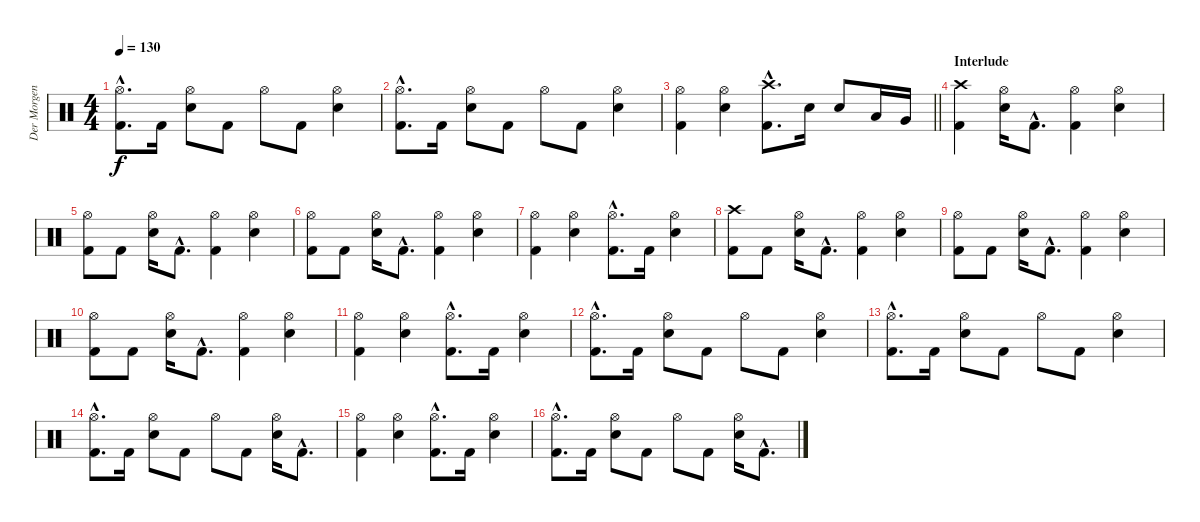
\track ("Der Morgenstern" "Der Morgen") {instrument percussion}
\staff {score}
\articulation defaults
\ts (4 4)
\tempo 130
\clef neutral
\ks c
("Hi-Hat (open)"{hac} "Kick (hit) 2"{hac}).8{d dy f} "Kick (hit) 2".16 ("Hi-Hat (open)" "Electric Snare (hit)").8 "Kick (hit) 2".8 "Hi-Hat (open)".8 "Kick (hit) 2".8 ("Hi-Hat (open)" "Electric Snare (hit)").4 |
("Hi-Hat (open)"{hac} "Kick (hit) 2"{hac}).8{d} "Kick (hit) 2".16 ("Hi-Hat (open)" "Electric Snare (hit)").8 "Kick (hit) 2".8 "Hi-Hat (open)".8 "Kick (hit) 2".8 ("Hi-Hat (open)" "Electric Snare (hit)").4 |
\barLineRight lightlight
("Hi-Hat (open)" "Kick (hit) 2").4 ("Hi-Hat (open)" "Electric Snare (hit)").4 ("Crash high (hit)"{hac} "Kick (hit) 2"{hac}).8{d} "Electric Snare (hit)".16 "Electric Snare (hit)".8 "Low Tom (hit)".16 "Very Low Tom (hit)".16 |
\section ("" "Interlude")
("Crash high (hit)" "Kick (hit) 2").4 ("Hi-Hat (open)" "Electric Snare (hit)").16 "Kick (hit) 2"{hac}.8{d} ("Hi-Hat (open)" "Kick (hit) 2").4 ("Hi-Hat (open)" "Electric Snare (hit)").4 |
("Hi-Hat (open)" "Kick (hit) 2").8 "Kick (hit) 2".8 ("Hi-Hat (open)" "Electric Snare (hit)").16 "Kick (hit) 2"{hac}.8{d} ("Hi-Hat (open)" "Kick (hit) 2").4 ("Hi-Hat (open)" "Electric Snare (hit)").4 |
("Hi-Hat (open)" "Kick (hit) 2").8 "Kick (hit) 2".8 ("Hi-Hat (open)" "Electric Snare (hit)").16 "Kick (hit) 2"{hac}.8{d} ("Hi-Hat (open)" "Kick (hit) 2").4 ("Hi-Hat (open)" "Electric Snare (hit)").4 |
("Hi-Hat (open)" "Kick (hit) 2").4 ("Hi-Hat (open)" "Electric Snare (hit)").4 ("Hi-Hat (open)"{hac} "Kick (hit) 2"{hac}).8{d} "Kick (hit) 2".16 ("Hi-Hat (open)" "Electric Snare (hit)").4 |
("Crash high (hit)" "Kick (hit) 2").8 "Kick (hit) 2".8 ("Hi-Hat (open)" "Electric Snare (hit)").16 "Kick (hit) 2"{hac}.8{d} ("Hi-Hat (open)" "Kick (hit) 2").4 ("Hi-Hat (open)" "Electric Snare (hit)").4 |
("Hi-Hat (open)" "Kick (hit) 2").8 "Kick (hit) 2".8 ("Hi-Hat (open)" "Electric Snare (hit)").16 "Kick (hit) 2"{hac}.8{d} ("Hi-Hat (open)" "Kick (hit) 2").4 ("Hi-Hat (open)" "Electric Snare (hit)").4 |
("Hi-Hat (open)" "Kick (hit) 2").8 "Kick (hit) 2".8 ("Hi-Hat (open)" "Electric Snare (hit)").16 "Kick (hit) 2"{hac}.8{d} ("Hi-Hat (open)" "Kick (hit) 2").4 ("Hi-Hat (open)" "Electric Snare (hit)").4 |
("Hi-Hat (open)" "Kick (hit) 2").4 ("Hi-Hat (open)" "Electric Snare (hit)").4 ("Hi-Hat (open)"{hac} "Kick (hit) 2"{hac}).8{d} "Kick (hit) 2".16 ("Hi-Hat (open)" "Electric Snare (hit)").4 |
("Hi-Hat (open)"{hac} "Kick (hit) 2"{hac}).8{d} "Kick (hit) 2".16 ("Hi-Hat (open)" "Electric Snare (hit)").8 "Kick (hit) 2".8 "Hi-Hat (open)".8 "Kick (hit) 2".8 ("Hi-Hat (open)" "Electric Snare (hit)").4 |
("Hi-Hat (open)"{hac} "Kick (hit) 2"{hac}).8{d} "Kick (hit) 2".16 ("Hi-Hat (open)" "Electric Snare (hit)").8 "Kick (hit) 2".8 "Hi-Hat (open)".8 "Kick (hit) 2".8 ("Hi-Hat (open)" "Electric Snare (hit)").4 |
("Hi-Hat (open)"{hac} "Kick (hit) 2"{hac}).8{d} "Kick (hit) 2".16 ("Hi-Hat (open)" "Electric Snare (hit)").8 "Kick (hit) 2".8 "Hi-Hat (open)".8 "Kick (hit) 2".8 ("Hi-Hat (open)" "Electric Snare (hit)").16 "Kick (hit) 2"{hac}.8{d} |
("Hi-Hat (open)" "Kick (hit) 2").4 ("Hi-Hat (open)" "Electric Snare (hit)").4 ("Hi-Hat (open)"{hac} "Kick (hit) 2"{hac}).8{d} "Kick (hit) 2".16 ("Hi-Hat (open)" "Electric Snare (hit)").4 |
("Hi-Hat (open)"{hac} "Kick (hit) 2"{hac}).8{d} "Kick (hit) 2".16 ("Hi-Hat (open)" "Electric Snare (hit)").8 "Kick (hit) 2".8 "Hi-Hat (open)".8 "Kick (hit) 2".8 ("Hi-Hat (open)" "Electric Snare (hit)").16 "Kick (hit) 2"{hac}.8{d}
